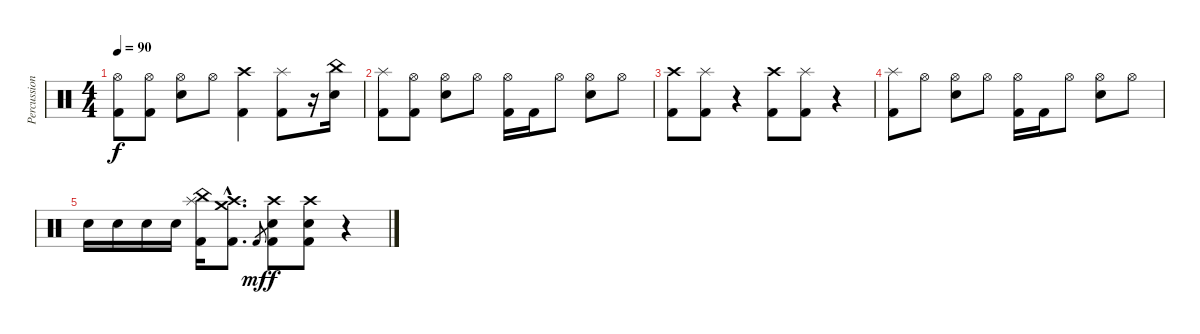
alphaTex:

\track ("Percussions" "Percussion") {instrument percussion}
\staff {score}
\articulation defaults
\ts (4 4)
\tempo 90
\clef neutral
\ks c
("Kick (hit) 2" "Hi-Hat (open)").8{dy f} ("Kick (hit) 2" "Hi-Hat (open)").8 ("Snare (hit) 2" "Hi-Hat (open)").8 "Hi-Hat (open)".8 ("Kick (hit) 2" "Crash high (hit)").4 ("Kick (hit) 2" "Splash (hit)").8 r.16 ("Snare (hit) 2" "China (hit)").16 |
("Kick (hit) 2" "Splash (hit)").8 ("Kick (hit) 2" "Hi-Hat (open)").8 ("Snare (hit) 2" "Hi-Hat (open)").8 "Hi-Hat (open)".8 ("Kick (hit) 2" "Hi-Hat (open)").16 "Kick (hit) 2".16 "Hi-Hat (open)".8 ("Snare (hit) 2" "Hi-Hat (open)").8 "Hi-Hat (open)".8 |
("Kick (hit) 2" "Crash high (hit)").8 ("Kick (hit) 2" "Splash (hit)").8 r.4 ("Kick (hit) 2" "Crash high (hit)").8 ("Kick (hit) 2" "Splash (hit)").8 r.4 |
("Kick (hit) 2" "Splash (hit)").8 "Hi-Hat (open)".8 ("Snare (hit) 2" "Hi-Hat (open)").8 "Hi-Hat (open)".8 ("Kick (hit) 2" "Hi-Hat (open)").16 "Kick (hit) 2".16 "Hi-Hat (open)".8 ("Snare (hit) 2" "Hi-Hat (open)").8 "Hi-Hat (open)".8 |
"Snare (hit) 2".16 "Snare (hit) 2".16 "Snare (hit) 2".16 "Snare (hit) 2".16 ("Kick (hit) 2" "China (hit)" "Splash (hit)").16 ("Kick (hit) 2"{hac} "Crash medium (hit)"{hac} "Crash high (hit)"{hac}).8{d} "Kick (hit) 2".8{gr dy mf} ("Kick (hit) 2" "Snare (hit) 2" "Crash high (hit)").8{dy f} ("Kick (hit) 2" "Snare (hit) 2" "Crash high (hit)").8 r.4
